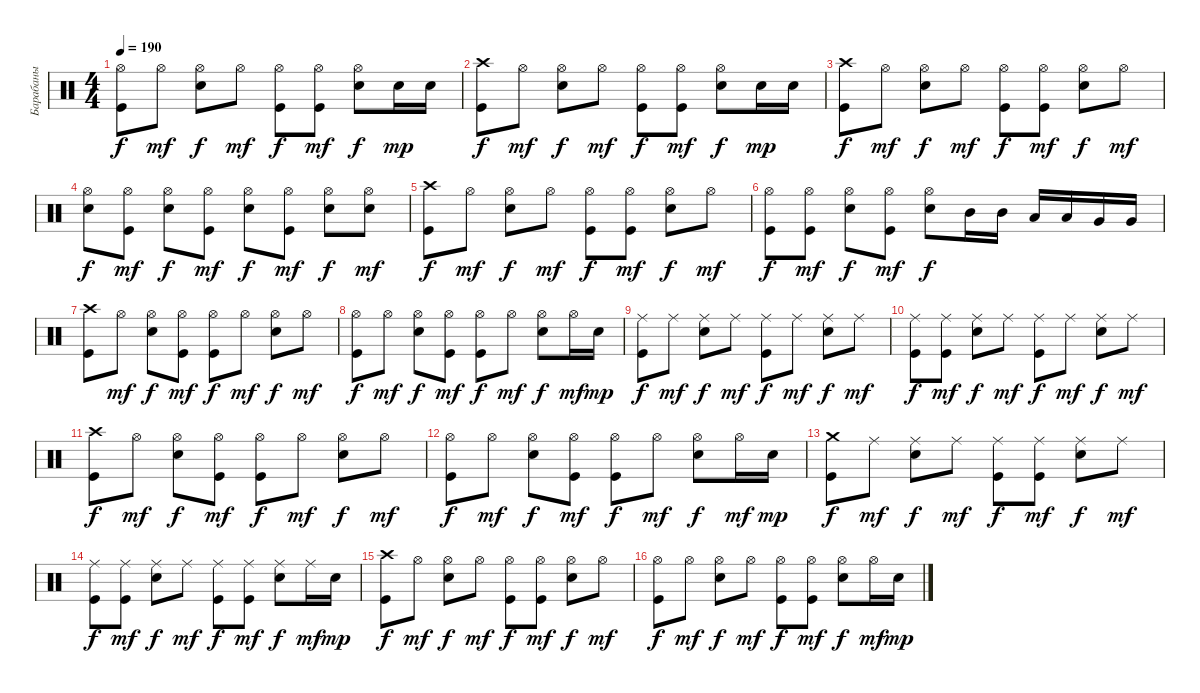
\track ("Барабаны" "Барабаны") {instrument percussion}
\staff {score}
\articulation defaults
\ts (4 4)
\tempo 190
\clef neutral
\ks c
("Hi-Hat (open)" "Kick (hit)").8{dy f} "Hi-Hat (open)".8{dy mf} ("Hi-Hat (open)" "Electric Snare (hit)").8{dy f} "Hi-Hat (open)".8{dy mf} ("Hi-Hat (open)" "Kick (hit)").8{dy f} ("Hi-Hat (open)" "Kick (hit)").8{dy mf} ("Hi-Hat (open)" "Electric Snare (hit)").8{dy f} "Electric Snare (hit)".16{dy mp} "Electric Snare (hit)".16 |
("Crash high (hit)" "Kick (hit)").8{dy f} "Hi-Hat (open)".8{dy mf} ("Hi-Hat (open)" "Electric Snare (hit)").8{dy f} "Hi-Hat (open)".8{dy mf} ("Hi-Hat (open)" "Kick (hit)").8{dy f} ("Hi-Hat (open)" "Kick (hit)").8{dy mf} ("Hi-Hat (open)" "Electric Snare (hit)").8{dy f} "Electric Snare (hit)".16{dy mp} "Electric Snare (hit)".16 |
("Crash high (hit)" "Kick (hit)").8{dy f} "Hi-Hat (open)".8{dy mf} ("Hi-Hat (open)" "Electric Snare (hit)").8{dy f} "Hi-Hat (open)".8{dy mf} ("Hi-Hat (open)" "Kick (hit)").8{dy f} ("Hi-Hat (open)" "Kick (hit)").8{dy mf} ("Hi-Hat (open)" "Electric Snare (hit)").8{dy f} "Hi-Hat (open)".8{dy mf} |
("Hi-Hat (open)" "Electric Snare (hit)").8{dy f} ("Hi-Hat (open)" "Kick (hit)").8{dy mf} ("Hi-Hat (open)" "Electric Snare (hit)").8{dy f} ("Hi-Hat (open)" "Kick (hit)").8{dy mf} ("Hi-Hat (open)" "Electric Snare (hit)").8{dy f} ("Hi-Hat (open)" "Kick (hit)").8{dy mf} ("Hi-Hat (open)" "Electric Snare (hit)").8{dy f} ("Hi-Hat (open)" "Electric Snare (hit)").8{dy mf} |
("Crash high (hit)" "Kick (hit)").8{dy f} "Hi-Hat (open)".8{dy mf} ("Hi-Hat (open)" "Electric Snare (hit)").8{dy f} "Hi-Hat (open)".8{dy mf} ("Hi-Hat (open)" "Kick (hit)").8{dy f} ("Hi-Hat (open)" "Kick (hit)").8{dy mf} ("Hi-Hat (open)" "Electric Snare (hit)").8{dy f} "Hi-Hat (open)".8{dy mf} |
("Hi-Hat (open)" "Kick (hit)").8{dy f} ("Hi-Hat (open)" "Kick (hit)").8{dy mf} ("Hi-Hat (open)" "Electric Snare (hit)").8{dy f} ("Hi-Hat (open)" "Kick (hit)").8{dy mf} ("Hi-Hat (open)" "Electric Snare (hit)").8{dy f} "Mid Tom (hit)".16 "Mid Tom (hit)".16 "Low Tom (hit)".16 "Low Tom (hit)".16 "Very Low Tom (hit)".16 "Very Low Tom (hit)".16 |
("Crash high (hit)" "Kick (hit)").8 "Hi-Hat (open)".8{dy mf} ("Hi-Hat (open)" "Electric Snare (hit)").8{dy f} ("Hi-Hat (open)" "Kick (hit)").8{dy mf} ("Hi-Hat (open)" "Kick (hit)").8{dy f} "Hi-Hat (open)".8{dy mf} ("Hi-Hat (open)" "Electric Snare (hit)").8{dy f} "Hi-Hat (open)".8{dy mf} |
("Hi-Hat (open)" "Kick (hit)").8{dy f} "Hi-Hat (open)".8{dy mf} ("Hi-Hat (open)" "Electric Snare (hit)").8{dy f} ("Hi-Hat (open)" "Kick (hit)").8{dy mf} ("Hi-Hat (open)" "Kick (hit)").8{dy f} "Hi-Hat (open)".8{dy mf} ("Hi-Hat (open)" "Electric Snare (hit)").8{dy f} "Hi-Hat (open)".16{dy mf} "Electric Snare (hit)".16{dy mp} |
("Ride (middle)" "Kick (hit)").8{dy f} "Ride (middle)".8{dy mf} ("Ride (middle)" "Electric Snare (hit)").8{dy f} "Ride (middle)".8{dy mf} ("Ride (middle)" "Kick (hit)").8{dy f} "Ride (middle)".8{dy mf} ("Ride (middle)" "Electric Snare (hit)").8{dy f} "Ride (middle)".8{dy mf} |
("Ride (middle)" "Kick (hit)").8{dy f} ("Ride (middle)" "Kick (hit)").8{dy mf} ("Ride (middle)" "Electric Snare (hit)").8{dy f} "Ride (middle)".8{dy mf} ("Ride (middle)" "Kick (hit)").8{dy f} "Ride (middle)".8{dy mf} ("Ride (middle)" "Electric Snare (hit)").8{dy f} "Ride (middle)".8{dy mf} |
("Crash high (hit)" "Kick (hit)").8{dy f} "Hi-Hat (open)".8{dy mf} ("Hi-Hat (open)" "Electric Snare (hit)").8{dy f} ("Hi-Hat (open)" "Kick (hit)").8{dy mf} ("Hi-Hat (open)" "Kick (hit)").8{dy f} "Hi-Hat (open)".8{dy mf} ("Hi-Hat (open)" "Electric Snare (hit)").8{dy f} "Hi-Hat (open)".8{dy mf} |
("Hi-Hat (open)" "Kick (hit)").8{dy f} "Hi-Hat (open)".8{dy mf} ("Hi-Hat (open)" "Electric Snare (hit)").8{dy f} ("Hi-Hat (open)" "Kick (hit)").8{dy mf} ("Hi-Hat (open)" "Kick (hit)").8{dy f} "Hi-Hat (open)".8{dy mf} ("Hi-Hat (open)" "Electric Snare (hit)").8{dy f} "Hi-Hat (open)".16{dy mf} "Electric Snare (hit)".16{dy mp} |
("Crash medium (hit)" "Kick (hit)").8{dy f} "Ride (middle)".8{dy mf} ("Ride (middle)" "Electric Snare (hit)").8{dy f} "Ride (middle)".8{dy mf} ("Ride (middle)" "Kick (hit)").8{dy f} ("Ride (middle)" "Kick (hit)").8{dy mf} ("Ride (middle)" "Electric Snare (hit)").8{dy f} "Ride (middle)".8{dy mf} |
("Ride (middle)" "Kick (hit)").8{dy f} ("Ride (middle)" "Kick (hit)").8{dy mf} ("Ride (middle)" "Electric Snare (hit)").8{dy f} "Ride (middle)".8{dy mf} ("Ride (middle)" "Kick (hit)").8{dy f} ("Ride (middle)" "Kick (hit)").8{dy mf} ("Ride (middle)" "Electric Snare (hit)").8{dy f} "Ride (middle)".16{dy mf} "Electric Snare (hit)".16{dy mp} |
("Crash high (hit)" "Kick (hit)").8{dy f} "Hi-Hat (open)".8{dy mf} ("Hi-Hat (open)" "Electric Snare (hit)").8{dy f} "Hi-Hat (open)".8{dy mf} ("Hi-Hat (open)" "Kick (hit)").8{dy f} ("Hi-Hat (open)" "Kick (hit)").8{dy mf} ("Hi-Hat (open)" "Electric Snare (hit)").8{dy f} "Hi-Hat (open)".8{dy mf} |
("Hi-Hat (open)" "Kick (hit)").8{dy f} "Hi-Hat (open)".8{dy mf} ("Hi-Hat (open)" "Electric Snare (hit)").8{dy f} "Hi-Hat (open)".8{dy mf} ("Hi-Hat (open)" "Kick (hit)").8{dy f} ("Hi-Hat (open)" "Kick (hit)").8{dy mf} ("Hi-Hat (open)" "Electric Snare (hit)").8{dy f} "Hi-Hat (open)".16{dy mf} "Electric Snare (hit)".16{dy mp}
